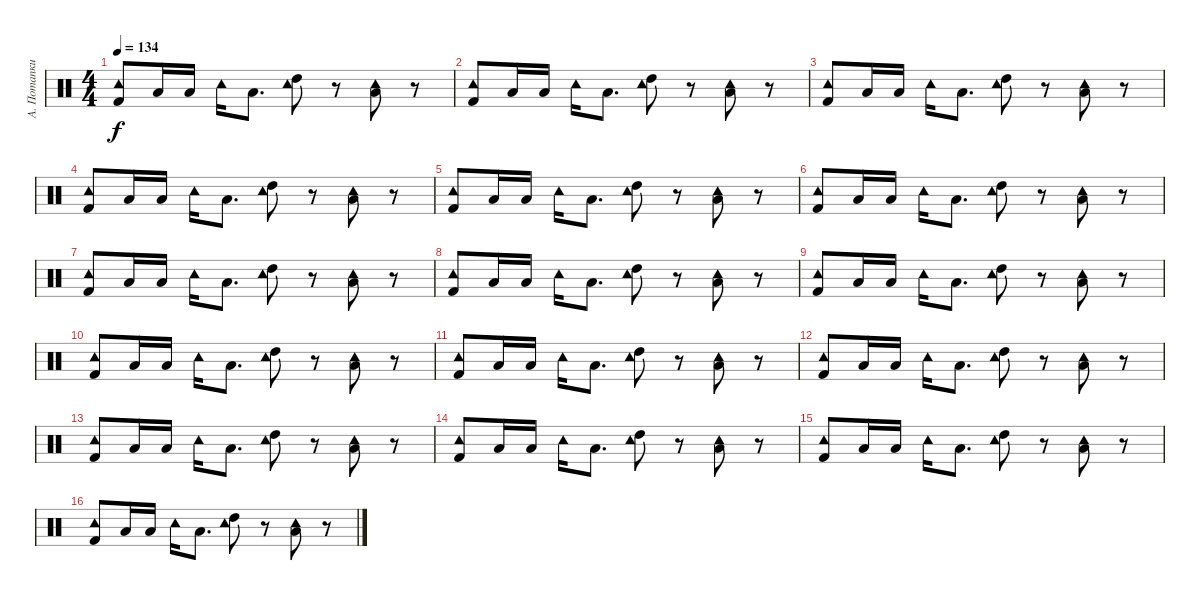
\track ("А. Потапкин" "А. Потапки") {instrument percussion}
\staff {score}
\articulation defaults
\ts (4 4)
\tempo 134
\clef neutral
\ks c
("Tambourine (hit)" "Kick (hit) 2").8{dy f} "Low Tom (hit)".16 "Low Tom (hit)".16 "Tambourine (hit)".16 "Low Tom (hit)".8{d} ("Tambourine (hit)" "High Tom (hit)").8 r.8 ("Tambourine (hit)" "Low Tom (hit)").8 r.8 |
("Tambourine (hit)" "Kick (hit) 2").8 "Low Tom (hit)".16 "Low Tom (hit)".16 "Tambourine (hit)".16 "Low Tom (hit)".8{d} ("Tambourine (hit)" "High Tom (hit)").8 r.8 ("Tambourine (hit)" "Low Tom (hit)").8 r.8 |
("Tambourine (hit)" "Kick (hit) 2").8 "Low Tom (hit)".16 "Low Tom (hit)".16 "Tambourine (hit)".16 "Low Tom (hit)".8{d} ("Tambourine (hit)" "High Tom (hit)").8 r.8 ("Tambourine (hit)" "Low Tom (hit)").8 r.8 |
("Tambourine (hit)" "Kick (hit) 2").8 "Low Tom (hit)".16 "Low Tom (hit)".16 "Tambourine (hit)".16 "Low Tom (hit)".8{d} ("Tambourine (hit)" "High Tom (hit)").8 r.8 ("Tambourine (hit)" "Low Tom (hit)").8 r.8 |
("Tambourine (hit)" "Kick (hit) 2").8 "Low Tom (hit)".16 "Low Tom (hit)".16 "Tambourine (hit)".16 "Low Tom (hit)".8{d} ("Tambourine (hit)" "High Tom (hit)").8 r.8 ("Tambourine (hit)" "Low Tom (hit)").8 r.8 |
("Tambourine (hit)" "Kick (hit) 2").8 "Low Tom (hit)".16 "Low Tom (hit)".16 "Tambourine (hit)".16 "Low Tom (hit)".8{d} ("Tambourine (hit)" "High Tom (hit)").8 r.8 ("Tambourine (hit)" "Low Tom (hit)").8 r.8 |
("Tambourine (hit)" "Kick (hit) 2").8 "Low Tom (hit)".16 "Low Tom (hit)".16 "Tambourine (hit)".16 "Low Tom (hit)".8{d} ("Tambourine (hit)" "High Tom (hit)").8 r.8 ("Tambourine (hit)" "Low Tom (hit)").8 r.8 |
("Tambourine (hit)" "Kick (hit) 2").8 "Low Tom (hit)".16 "Low Tom (hit)".16 "Tambourine (hit)".16 "Low Tom (hit)".8{d} ("Tambourine (hit)" "High Tom (hit)").8 r.8 ("Tambourine (hit)" "Low Tom (hit)").8 r.8 |
("Tambourine (hit)" "Kick (hit) 2").8 "Low Tom (hit)".16 "Low Tom (hit)".16 "Tambourine (hit)".16 "Low Tom (hit)".8{d} ("Tambourine (hit)" "High Tom (hit)").8 r.8 ("Tambourine (hit)" "Low Tom (hit)").8 r.8 |
("Tambourine (hit)" "Kick (hit) 2").8 "Low Tom (hit)".16 "Low Tom (hit)".16 "Tambourine (hit)".16 "Low Tom (hit)".8{d} ("Tambourine (hit)" "High Tom (hit)").8 r.8 ("Tambourine (hit)" "Low Tom (hit)").8 r.8 |
("Tambourine (hit)" "Kick (hit) 2").8 "Low Tom (hit)".16 "Low Tom (hit)".16 "Tambourine (hit)".16 "Low Tom (hit)".8{d} ("Tambourine (hit)" "High Tom (hit)").8 r.8 ("Tambourine (hit)" "Low Tom (hit)").8 r.8 |
("Tambourine (hit)" "Kick (hit) 2").8 "Low Tom (hit)".16 "Low Tom (hit)".16 "Tambourine (hit)".16 "Low Tom (hit)".8{d} ("Tambourine (hit)" "High Tom (hit)").8 r.8 ("Tambourine (hit)" "Low Tom (hit)").8 r.8 |
("Tambourine (hit)" "Kick (hit) 2").8 "Low Tom (hit)".16 "Low Tom (hit)".16 "Tambourine (hit)".16 "Low Tom (hit)".8{d} ("Tambourine (hit)" "High Tom (hit)").8 r.8 ("Tambourine (hit)" "Low Tom (hit)").8 r.8 |
("Tambourine (hit)" "Kick (hit) 2").8 "Low Tom (hit)".16 "Low Tom (hit)".16 "Tambourine (hit)".16 "Low Tom (hit)".8{d} ("Tambourine (hit)" "High Tom (hit)").8 r.8 ("Tambourine (hit)" "Low Tom (hit)").8 r.8 |
("Tambourine (hit)" "Kick (hit) 2").8 "Low Tom (hit)".16 "Low Tom (hit)".16 "Tambourine (hit)".16 "Low Tom (hit)".8{d} ("Tambourine (hit)" "High Tom (hit)").8 r.8 ("Tambourine (hit)" "Low Tom (hit)").8 r.8 |
("Tambourine (hit)" "Kick (hit) 2").8 "Low Tom (hit)".16 "Low Tom (hit)".16 "Tambourine (hit)".16 "Low Tom (hit)".8{d} ("Tambourine (hit)" "High Tom (hit)").8 r.8 ("Tambourine (hit)" "Low Tom (hit)").8 r.8
